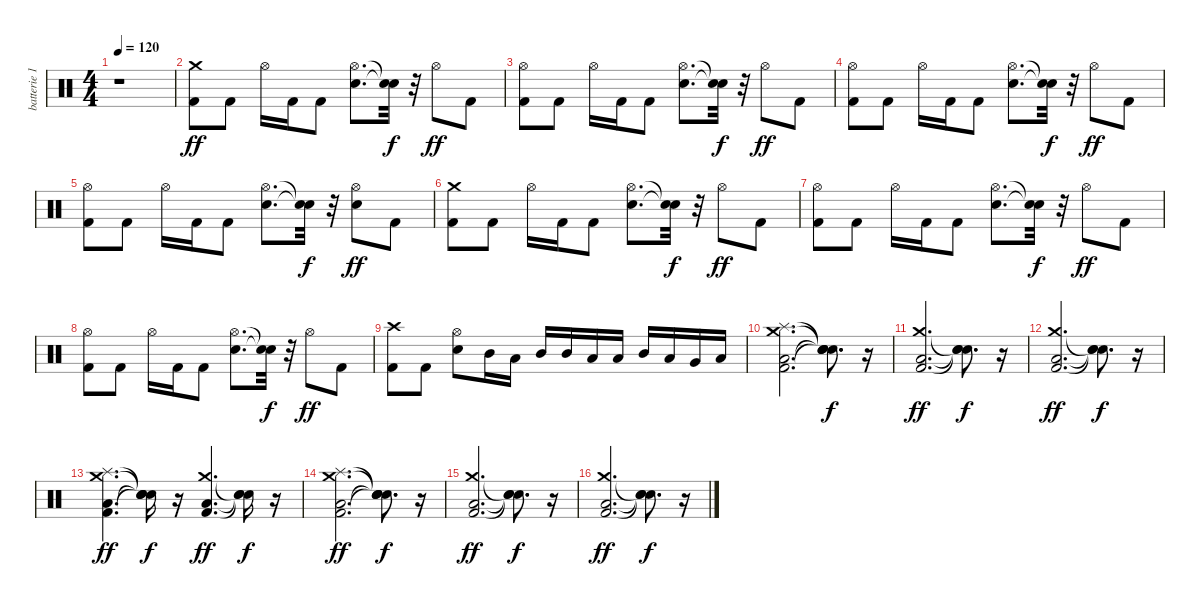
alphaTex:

\track ("batterie 1" "batterie 1") {instrument percussion}
\staff {score}
\articulation defaults
\ts (4 4)
\tempo 120
\clef neutral
\ks c
r.1{dy ff} |
("Kick (hit) 2" "Crash medium (hit)").8 "Kick (hit) 2".8 "Hi-Hat (open)".16 "Kick (hit) 2".16 "Kick (hit) 2".8 ("Electric Snare (hit)" "Hi-Hat (open)").8{d} ("Snare (hit)"{t} "Snare (hit)"{t}).32{dy f} r.32 "Hi-Hat (open)".8{dy ff} "Kick (hit) 2".8 |
("Kick (hit) 2" "Hi-Hat (open)").8 "Kick (hit) 2".8 "Hi-Hat (open)".16 "Kick (hit) 2".16 "Kick (hit) 2".8 ("Electric Snare (hit)" "Hi-Hat (open)").8{d} ("Snare (hit)"{t} "Snare (hit)"{t}).32{dy f} r.32 "Hi-Hat (open)".8{dy ff} "Kick (hit) 2".8 |
("Kick (hit) 2" "Hi-Hat (open)").8 "Kick (hit) 2".8 "Hi-Hat (open)".16 "Kick (hit) 2".16 "Kick (hit) 2".8 ("Electric Snare (hit)" "Hi-Hat (open)").8{d} ("Snare (hit)"{t} "Snare (hit)"{t}).32{dy f} r.32 "Hi-Hat (open)".8{dy ff} "Kick (hit) 2".8 |
("Kick (hit) 2" "Hi-Hat (open)").8 "Kick (hit) 2".8 "Hi-Hat (open)".16 "Kick (hit) 2".16 "Kick (hit) 2".8 ("Electric Snare (hit)" "Hi-Hat (open)").8{d} ("Snare (hit)"{t} "Snare (hit)"{t}).32{dy f} r.32 ("Electric Snare (hit)" "Hi-Hat (open)").8{dy ff} "Kick (hit) 2".8 |
("Kick (hit) 2" "Crash medium (hit)").8 "Kick (hit) 2".8 "Hi-Hat (open)".16 "Kick (hit) 2".16 "Kick (hit) 2".8 ("Electric Snare (hit)" "Hi-Hat (open)").8{d} ("Snare (hit)"{t} "Snare (hit)"{t}).32{dy f} r.32 "Hi-Hat (open)".8{dy ff} "Kick (hit) 2".8 |
("Kick (hit) 2" "Hi-Hat (open)").8 "Kick (hit) 2".8 "Hi-Hat (open)".16 "Kick (hit) 2".16 "Kick (hit) 2".8 ("Electric Snare (hit)" "Hi-Hat (open)").8{d} ("Snare (hit)"{t} "Snare (hit)"{t}).32{dy f} r.32 "Hi-Hat (open)".8{dy ff} "Kick (hit) 2".8 |
("Kick (hit) 2" "Hi-Hat (open)").8 "Kick (hit) 2".8 "Hi-Hat (open)".16 "Kick (hit) 2".16 "Kick (hit) 2".8 ("Electric Snare (hit)" "Hi-Hat (open)").8{d} ("Snare (hit)"{t} "Snare (hit)"{t}).32{dy f} r.32 "Hi-Hat (open)".8{dy ff} "Kick (hit) 2".8 |
("Kick (hit) 2" "Crash high (hit)").8 "Kick (hit) 2".8 ("Electric Snare (hit)" "Hi-Hat (open)").8 "Mid Tom (hit)".16 "Low Tom (hit)".16 "Mid Tom (hit)".16 "Mid Tom (hit)".16 "Low Tom (hit)".16 "Low Tom (hit)".16 "Mid Tom (hit)".16 "Low Tom (hit)".16 "Very Low Tom (hit)".16 "Low Floor Tom (hit)".16 |
("Kick (hit) 2" "Low Floor Tom (hit)" "Splash (hit)" "Crash medium (hit)").2{d} ("Snare (hit)"{t} "Snare (hit)"{t} "Snare (hit)"{t} "Snare (hit)"{t}).8{d dy f} r.16 |
("Kick (hit) 2" "Low Floor Tom (hit)" "Crash medium (hit)").2{d dy ff} ("Snare (hit)"{t} "Snare (hit)"{t} "Snare (hit)"{t}).8{d dy f} r.16 |
("Kick (hit) 2" "Low Floor Tom (hit)" "Crash medium (hit)").2{d dy ff} ("Snare (hit)"{t} "Snare (hit)"{t} "Snare (hit)"{t}).8{d dy f} r.16 |
("Kick (hit) 2" "Low Floor Tom (hit)" "Splash (hit)" "Crash medium (hit)").4{d dy ff} ("Snare (hit)"{t} "Snare (hit)"{t} "Snare (hit)"{t} "Snare (hit)"{t}).16{dy f} r.16 ("Kick (hit) 2" "Low Floor Tom (hit)" "Crash medium (hit)").4{d dy ff} ("Snare (hit)"{t} "Snare (hit)"{t} "Snare (hit)"{t}).16{dy f} r.16 |
("Kick (hit) 2" "Low Floor Tom (hit)" "Splash (hit)" "Crash medium (hit)").2{d dy ff} ("Snare (hit)"{t} "Snare (hit)"{t} "Snare (hit)"{t} "Snare (hit)"{t}).8{d dy f} r.16 |
("Kick (hit) 2" "Low Floor Tom (hit)" "Crash medium (hit)").2{d dy ff} ("Snare (hit)"{t} "Snare (hit)"{t} "Snare (hit)"{t}).8{d dy f} r.16 |
("Kick (hit) 2" "Low Floor Tom (hit)" "Crash medium (hit)").2{d dy ff} ("Snare (hit)"{t} "Snare (hit)"{t} "Snare (hit)"{t}).8{d dy f} r.16
